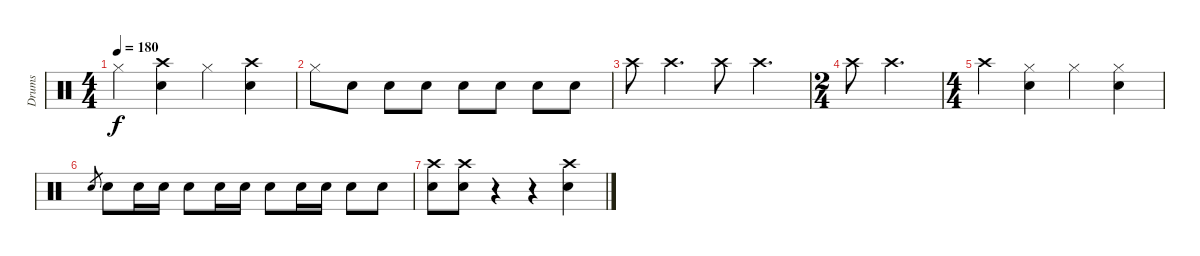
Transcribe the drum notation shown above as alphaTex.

\track ("Drums" "Drums") {instrument percussion}
\staff {score}
\articulation defaults
\ts (4 4)
\tempo 180
\clef neutral
\ks c "Hi-Hat (closed)".4{dy f}
("Crash high (hit)" "Snare (hit) 2").4 "Hi-Hat (closed)".4 ("Crash high (hit)" "Snare (hit) 2").4 |
"Hi-Hat (closed)".8 "Snare (hit) 2".8 "Snare (hit) 2".8 "Snare (hit) 2".8 "Snare (hit) 2".8 "Snare (hit) 2".8 "Snare (hit) 2".8 "Snare (hit) 2".8 |
"Crash high (hit)".8 "Crash high (hit)".4{d} "Crash high (hit)".8 "Crash high (hit)".4{d} |
\ts (2 4)
"Crash high (hit)".8 "Crash high (hit)".4{d} |
\ts (4 4)
"Crash high (hit)".4 ("Hi-Hat (closed)" "Snare (hit) 2").4 "Hi-Hat (closed)".4 ("Hi-Hat (closed)" "Snare (hit) 2").4 |
"Snare (hit) 2".8{gr} "Snare (hit) 2".8 "Snare (hit) 2".16 "Snare (hit) 2".16 "Snare (hit) 2".8 "Snare (hit) 2".16 "Snare (hit) 2".16 "Snare (hit) 2".8 "Snare (hit) 2".16 "Snare (hit) 2".16 "Snare (hit) 2".8 "Snare (hit) 2".8 |
("Crash high (hit)" "Snare (hit) 2").8 ("Crash high (hit)" "Snare (hit) 2").8 r.4 r.4 ("Crash high (hit)" "Snare (hit) 2").4
